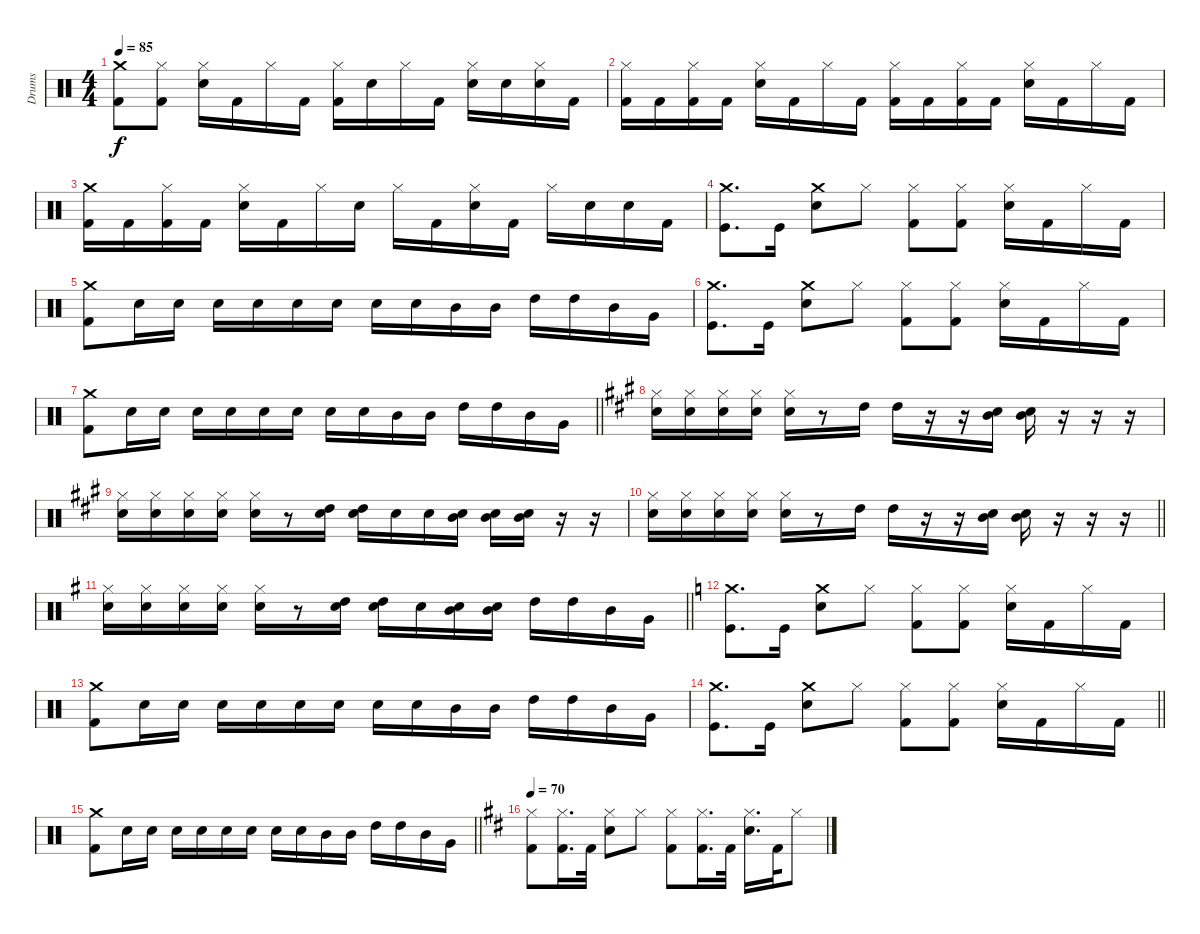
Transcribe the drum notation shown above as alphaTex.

\track ("Drums" "Drums") {instrument percussion}
\staff {score}
\articulation defaults
\ts (4 4)
\tempo 85
\clef neutral
\ks c
("Crash medium (hit)" "Kick (hit) 2").8{dy f} ("Hi-Hat (closed)" "Kick (hit) 2").8 ("Hi-Hat (closed)" "Snare (hit) 2").16 "Kick (hit) 2".16 "Hi-Hat (closed)".16 "Kick (hit) 2".16 ("Hi-Hat (closed)" "Kick (hit) 2").16 "Snare (hit) 2".16 "Hi-Hat (closed)".16 "Kick (hit) 2".16 ("Hi-Hat (closed)" "Snare (hit) 2").16 "Snare (hit) 2".16 ("Hi-Hat (closed)" "Snare (hit) 2").16 "Kick (hit) 2".16 |
("Hi-Hat (closed)" "Kick (hit) 2").16 "Kick (hit) 2".16 ("Hi-Hat (closed)" "Kick (hit) 2").16 "Kick (hit) 2".16 ("Hi-Hat (closed)" "Snare (hit) 2").16 "Kick (hit) 2".16 "Hi-Hat (closed)".16 "Kick (hit) 2".16 ("Hi-Hat (closed)" "Kick (hit) 2").16 "Kick (hit) 2".16 ("Hi-Hat (closed)" "Kick (hit) 2").16 "Kick (hit) 2".16 ("Hi-Hat (closed)" "Snare (hit) 2").16 "Kick (hit) 2".16 "Hi-Hat (closed)".16 "Kick (hit) 2".16 |
("Crash medium (hit)" "Kick (hit) 2").16 "Kick (hit) 2".16 ("Hi-Hat (closed)" "Kick (hit) 2").16 "Kick (hit) 2".16 ("Hi-Hat (closed)" "Snare (hit) 2").16 "Kick (hit) 2".16 "Hi-Hat (closed)".16 "Snare (hit) 2".16 "Hi-Hat (closed)".16 "Kick (hit) 2".16 ("Hi-Hat (closed)" "Snare (hit) 2").16 "Kick (hit) 2".16 "Hi-Hat (closed)".16 "Snare (hit) 2".16 "Snare (hit) 2".16 "Kick (hit) 2".16 |
("Crash medium (hit)" "Kick (hit)").8{d} "Kick (hit)".16 ("Crash medium (hit)" "Snare (hit) 2").8 "Hi-Hat (closed)".8 ("Hi-Hat (closed)" "Kick (hit) 2").8 ("Hi-Hat (closed)" "Kick (hit) 2").8 ("Hi-Hat (closed)" "Snare (hit) 2").16 "Kick (hit) 2".16 "Hi-Hat (closed)".16 "Kick (hit) 2".16 |
("Crash medium (hit)" "Kick (hit) 2").8 "Snare (hit) 2".16 "Snare (hit) 2".16 "Snare (hit) 2".16 "Snare (hit) 2".16 "Snare (hit) 2".16 "Snare (hit) 2".16 "Snare (hit) 2".16 "Snare (hit) 2".16 "Mid Tom (hit)".16 "Mid Tom (hit)".16 "High Tom (hit)".16 "High Tom (hit)".16 "Mid Tom (hit)".16 "Very Low Tom (hit)".16 |
("Crash medium (hit)" "Kick (hit)").8{d} "Kick (hit)".16 ("Crash medium (hit)" "Snare (hit) 2").8 "Hi-Hat (closed)".8 ("Hi-Hat (closed)" "Kick (hit) 2").8 ("Hi-Hat (closed)" "Kick (hit) 2").8 ("Hi-Hat (closed)" "Snare (hit) 2").16 "Kick (hit) 2".16 "Hi-Hat (closed)".16 "Kick (hit) 2".16 |
\barLineRight lightlight
("Crash medium (hit)" "Kick (hit) 2").8 "Snare (hit) 2".16 "Snare (hit) 2".16 "Snare (hit) 2".16 "Snare (hit) 2".16 "Snare (hit) 2".16 "Snare (hit) 2".16 "Snare (hit) 2".16 "Snare (hit) 2".16 "Mid Tom (hit)".16 "Mid Tom (hit)".16 "High Tom (hit)".16 "High Tom (hit)".16 "Mid Tom (hit)".16 "Very Low Tom (hit)".16 |
\ks a
("Hi-Hat (closed)" "Snare (hit) 2").16 ("Hi-Hat (closed)" "Snare (hit) 2").16 ("Hi-Hat (closed)" "Snare (hit) 2").16 ("Hi-Hat (closed)" "Snare (hit) 2").16 ("Hi-Hat (closed)" "Snare (hit) 2").16 r.8 "High Tom (hit)".16 "High Tom (hit)".16 r.16 r.16 ("Mid Tom (hit)" "Snare (hit) 2").16 ("Mid Tom (hit)" "Snare (hit) 2").16 r.16 r.16 r.16 |
("Hi-Hat (closed)" "Snare (hit) 2").16 ("Hi-Hat (closed)" "Snare (hit) 2").16 ("Hi-Hat (closed)" "Snare (hit) 2").16 ("Hi-Hat (closed)" "Snare (hit) 2").16 ("Hi-Hat (closed)" "Snare (hit) 2").16 r.8 ("High Tom (hit)" "Snare (hit) 2").16 ("High Tom (hit)" "Snare (hit) 2").16 "Snare (hit) 2".16 "Snare (hit) 2".16 ("Mid Tom (hit)" "Snare (hit) 2").16 ("Mid Tom (hit)" "Snare (hit) 2").16 ("Mid Tom (hit)" "Snare (hit) 2").16 r.16 r.16 |
\barLineRight lightlight
("Hi-Hat (closed)" "Snare (hit) 2").16 ("Hi-Hat (closed)" "Snare (hit) 2").16 ("Hi-Hat (closed)" "Snare (hit) 2").16 ("Hi-Hat (closed)" "Snare (hit) 2").16 ("Hi-Hat (closed)" "Snare (hit) 2").16 r.8 "High Tom (hit)".16 "High Tom (hit)".16 r.16 r.16 ("Mid Tom (hit)" "Snare (hit) 2").16 ("Mid Tom (hit)" "Snare (hit) 2").16 r.16 r.16 r.16 |
\barLineRight lightlight
\ks g
("Hi-Hat (closed)" "Snare (hit) 2").16 ("Hi-Hat (closed)" "Snare (hit) 2").16 ("Hi-Hat (closed)" "Snare (hit) 2").16 ("Hi-Hat (closed)" "Snare (hit) 2").16 ("Hi-Hat (closed)" "Snare (hit) 2").16 r.8 ("High Tom (hit)" "Snare (hit) 2").16 ("High Tom (hit)" "Snare (hit) 2").16 "Snare (hit) 2".16 ("Mid Tom (hit)" "Snare (hit) 2").16 ("Mid Tom (hit)" "Snare (hit) 2").16 "High Tom (hit)".16 "High Tom (hit)".16 "Mid Tom (hit)".16 "Very Low Tom (hit)".16 |
\ks c
("Crash medium (hit)" "Kick (hit)").8{d} "Kick (hit)".16 ("Crash medium (hit)" "Snare (hit) 2").8 "Hi-Hat (closed)".8 ("Hi-Hat (closed)" "Kick (hit) 2").8 ("Hi-Hat (closed)" "Kick (hit) 2").8 ("Hi-Hat (closed)" "Snare (hit) 2").16 "Kick (hit) 2".16 "Hi-Hat (closed)".16 "Kick (hit) 2".16 |
("Crash medium (hit)" "Kick (hit) 2").8 "Snare (hit) 2".16 "Snare (hit) 2".16 "Snare (hit) 2".16 "Snare (hit) 2".16 "Snare (hit) 2".16 "Snare (hit) 2".16 "Snare (hit) 2".16 "Snare (hit) 2".16 "Mid Tom (hit)".16 "Mid Tom (hit)".16 "High Tom (hit)".16 "High Tom (hit)".16 "Mid Tom (hit)".16 "Very Low Tom (hit)".16 |
\barLineRight lightlight
("Crash medium (hit)" "Kick (hit)").8{d} "Kick (hit)".16 ("Crash medium (hit)" "Snare (hit) 2").8 "Hi-Hat (closed)".8 ("Hi-Hat (closed)" "Kick (hit) 2").8 ("Hi-Hat (closed)" "Kick (hit) 2").8 ("Hi-Hat (closed)" "Snare (hit) 2").16 "Kick (hit) 2".16 "Hi-Hat (closed)".16 "Kick (hit) 2".16 |
\barLineRight lightlight
("Crash medium (hit)" "Kick (hit) 2").8 "Snare (hit) 2".16 "Snare (hit) 2".16 "Snare (hit) 2".16 "Snare (hit) 2".16 "Snare (hit) 2".16 "Snare (hit) 2".16 "Snare (hit) 2".16 "Snare (hit) 2".16 "Mid Tom (hit)".16 "Mid Tom (hit)".16 "High Tom (hit)".16 "High Tom (hit)".16 "Mid Tom (hit)".16 "Very Low Tom (hit)".16 |
\tempo 70
\ks d
("Hi-Hat (closed)" "Kick (hit) 2").8 ("Hi-Hat (closed)" "Kick (hit) 2").16{d} "Kick (hit) 2".32 ("Hi-Hat (closed)" "Snare (hit) 2").8 "Hi-Hat (closed)".8 ("Hi-Hat (closed)" "Kick (hit) 2").8 ("Hi-Hat (closed)" "Kick (hit) 2").16{d} "Kick (hit) 2".32 ("Hi-Hat (closed)" "Snare (hit) 2").16{d} "Kick (hit) 2".32 "Hi-Hat (closed)".8
